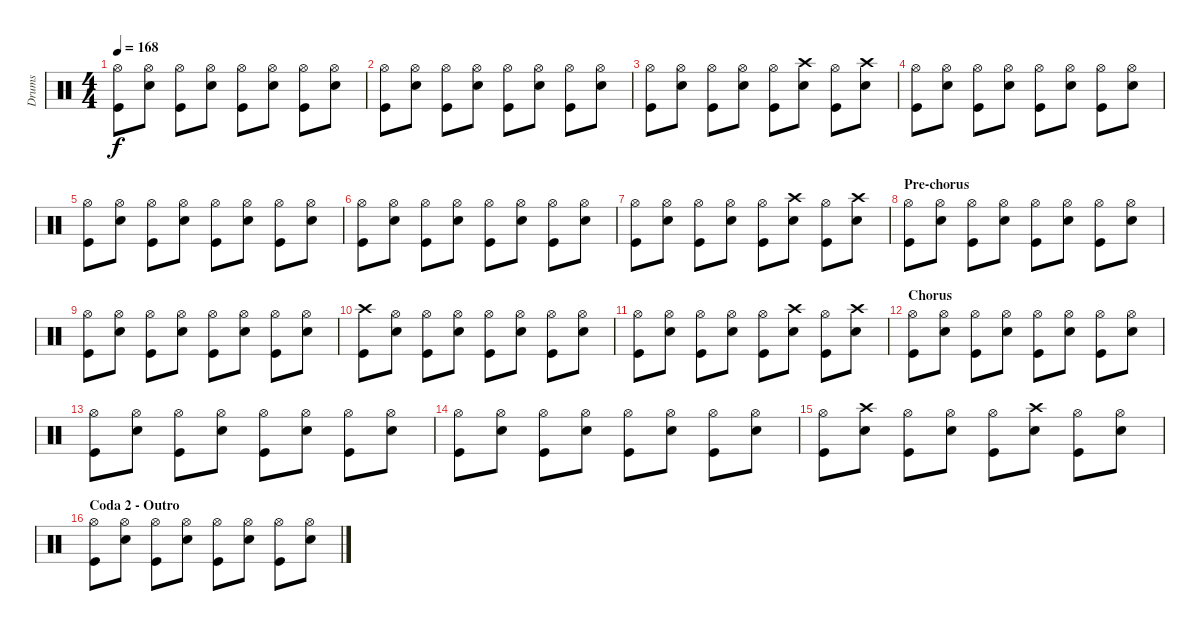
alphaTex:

\track ("Drums" "Drums") {instrument percussion}
\staff {score}
\articulation defaults
\ts (4 4)
\tempo 168
\clef neutral
\ks c
("Hi-Hat (open)" "Kick (hit)").8{dy f} ("Hi-Hat (open)" "Snare (hit) 2").8 ("Hi-Hat (open)" "Kick (hit)").8 ("Hi-Hat (open)" "Snare (hit) 2").8 ("Hi-Hat (open)" "Kick (hit)").8 ("Hi-Hat (open)" "Snare (hit) 2").8 ("Hi-Hat (open)" "Kick (hit)").8 ("Hi-Hat (open)" "Snare (hit) 2").8 |
("Hi-Hat (open)" "Kick (hit)").8 ("Hi-Hat (open)" "Snare (hit) 2").8 ("Hi-Hat (open)" "Kick (hit)").8 ("Hi-Hat (open)" "Snare (hit) 2").8 ("Hi-Hat (open)" "Kick (hit)").8 ("Hi-Hat (open)" "Snare (hit) 2").8 ("Hi-Hat (open)" "Kick (hit)").8 ("Hi-Hat (open)" "Snare (hit) 2").8 |
("Hi-Hat (open)" "Kick (hit)").8 ("Hi-Hat (open)" "Snare (hit) 2").8 ("Hi-Hat (open)" "Kick (hit)").8 ("Hi-Hat (open)" "Snare (hit) 2").8 ("Hi-Hat (open)" "Kick (hit)").8 ("Crash high (hit)" "Snare (hit) 2").8 ("Hi-Hat (open)" "Kick (hit)").8 ("Crash high (hit)" "Snare (hit) 2").8 |
("Hi-Hat (open)" "Kick (hit)").8 ("Hi-Hat (open)" "Snare (hit) 2").8 ("Hi-Hat (open)" "Kick (hit)").8 ("Hi-Hat (open)" "Snare (hit) 2").8 ("Hi-Hat (open)" "Kick (hit)").8 ("Hi-Hat (open)" "Snare (hit) 2").8 ("Hi-Hat (open)" "Kick (hit)").8 ("Hi-Hat (open)" "Snare (hit) 2").8 |
("Hi-Hat (open)" "Kick (hit)").8 ("Hi-Hat (open)" "Snare (hit) 2").8 ("Hi-Hat (open)" "Kick (hit)").8 ("Hi-Hat (open)" "Snare (hit) 2").8 ("Hi-Hat (open)" "Kick (hit)").8 ("Hi-Hat (open)" "Snare (hit) 2").8 ("Hi-Hat (open)" "Kick (hit)").8 ("Hi-Hat (open)" "Snare (hit) 2").8 |
("Hi-Hat (open)" "Kick (hit)").8 ("Hi-Hat (open)" "Snare (hit) 2").8 ("Hi-Hat (open)" "Kick (hit)").8 ("Hi-Hat (open)" "Snare (hit) 2").8 ("Hi-Hat (open)" "Kick (hit)").8 ("Hi-Hat (open)" "Snare (hit) 2").8 ("Hi-Hat (open)" "Kick (hit)").8 ("Hi-Hat (open)" "Snare (hit) 2").8 |
("Hi-Hat (open)" "Kick (hit)").8 ("Hi-Hat (open)" "Snare (hit) 2").8 ("Hi-Hat (open)" "Kick (hit)").8 ("Hi-Hat (open)" "Snare (hit) 2").8 ("Hi-Hat (open)" "Kick (hit)").8 ("Crash high (hit)" "Snare (hit) 2").8 ("Hi-Hat (open)" "Kick (hit)").8 ("Crash high (hit)" "Snare (hit) 2").8 |
\section ("" "Pre-chorus")
("Hi-Hat (open)" "Kick (hit)").8 ("Hi-Hat (open)" "Snare (hit) 2").8 ("Hi-Hat (open)" "Kick (hit)").8 ("Hi-Hat (open)" "Snare (hit) 2").8 ("Hi-Hat (open)" "Kick (hit)").8 ("Hi-Hat (open)" "Snare (hit) 2").8 ("Hi-Hat (open)" "Kick (hit)").8 ("Hi-Hat (open)" "Snare (hit) 2").8 |
("Hi-Hat (open)" "Kick (hit)").8 ("Hi-Hat (open)" "Snare (hit) 2").8 ("Hi-Hat (open)" "Kick (hit)").8 ("Hi-Hat (open)" "Snare (hit) 2").8 ("Hi-Hat (open)" "Kick (hit)").8 ("Hi-Hat (open)" "Snare (hit) 2").8 ("Hi-Hat (open)" "Kick (hit)").8 ("Hi-Hat (open)" "Snare (hit) 2").8 |
("Crash high (hit)" "Kick (hit)").8 ("Hi-Hat (open)" "Snare (hit) 2").8 ("Hi-Hat (open)" "Kick (hit)").8 ("Hi-Hat (open)" "Snare (hit) 2").8 ("Hi-Hat (open)" "Kick (hit)").8 ("Hi-Hat (open)" "Snare (hit) 2").8 ("Hi-Hat (open)" "Kick (hit)").8 ("Hi-Hat (open)" "Snare (hit) 2").8 |
("Hi-Hat (open)" "Kick (hit)").8 ("Hi-Hat (open)" "Snare (hit) 2").8 ("Hi-Hat (open)" "Kick (hit)").8 ("Hi-Hat (open)" "Snare (hit) 2").8 ("Hi-Hat (open)" "Kick (hit)").8 ("Crash high (hit)" "Snare (hit) 2").8 ("Hi-Hat (open)" "Kick (hit)").8 ("Crash high (hit)" "Snare (hit) 2").8 |
\section ("" "Chorus")
("Hi-Hat (open)" "Kick (hit)").8 ("Hi-Hat (open)" "Snare (hit) 2").8 ("Hi-Hat (open)" "Kick (hit)").8 ("Hi-Hat (open)" "Snare (hit) 2").8 ("Hi-Hat (open)" "Kick (hit)").8 ("Hi-Hat (open)" "Snare (hit) 2").8 ("Hi-Hat (open)" "Kick (hit)").8 ("Hi-Hat (open)" "Snare (hit) 2").8 |
("Hi-Hat (open)" "Kick (hit)").8 ("Hi-Hat (open)" "Snare (hit) 2").8 ("Hi-Hat (open)" "Kick (hit)").8 ("Hi-Hat (open)" "Snare (hit) 2").8 ("Hi-Hat (open)" "Kick (hit)").8 ("Hi-Hat (open)" "Snare (hit) 2").8 ("Hi-Hat (open)" "Kick (hit)").8 ("Hi-Hat (open)" "Snare (hit) 2").8 |
("Hi-Hat (open)" "Kick (hit)").8 ("Hi-Hat (open)" "Snare (hit) 2").8 ("Hi-Hat (open)" "Kick (hit)").8 ("Hi-Hat (open)" "Snare (hit) 2").8 ("Hi-Hat (open)" "Kick (hit)").8 ("Hi-Hat (open)" "Snare (hit) 2").8 ("Hi-Hat (open)" "Kick (hit)").8 ("Hi-Hat (open)" "Snare (hit) 2").8 |
("Hi-Hat (open)" "Kick (hit)").8 ("Crash high (hit)" "Snare (hit) 2").8 ("Hi-Hat (open)" "Kick (hit)").8 ("Hi-Hat (open)" "Snare (hit) 2").8 ("Hi-Hat (open)" "Kick (hit)").8 ("Crash high (hit)" "Snare (hit) 2").8 ("Hi-Hat (open)" "Kick (hit)").8 ("Hi-Hat (open)" "Snare (hit) 2").8 |
\section ("" "Coda 2 - Outro")
("Hi-Hat (open)" "Kick (hit)").8 ("Hi-Hat (open)" "Snare (hit) 2").8 ("Hi-Hat (open)" "Kick (hit)").8 ("Hi-Hat (open)" "Snare (hit) 2").8 ("Hi-Hat (open)" "Kick (hit)").8 ("Hi-Hat (open)" "Snare (hit) 2").8 ("Hi-Hat (open)" "Kick (hit)").8 ("Hi-Hat (open)" "Snare (hit) 2").8
